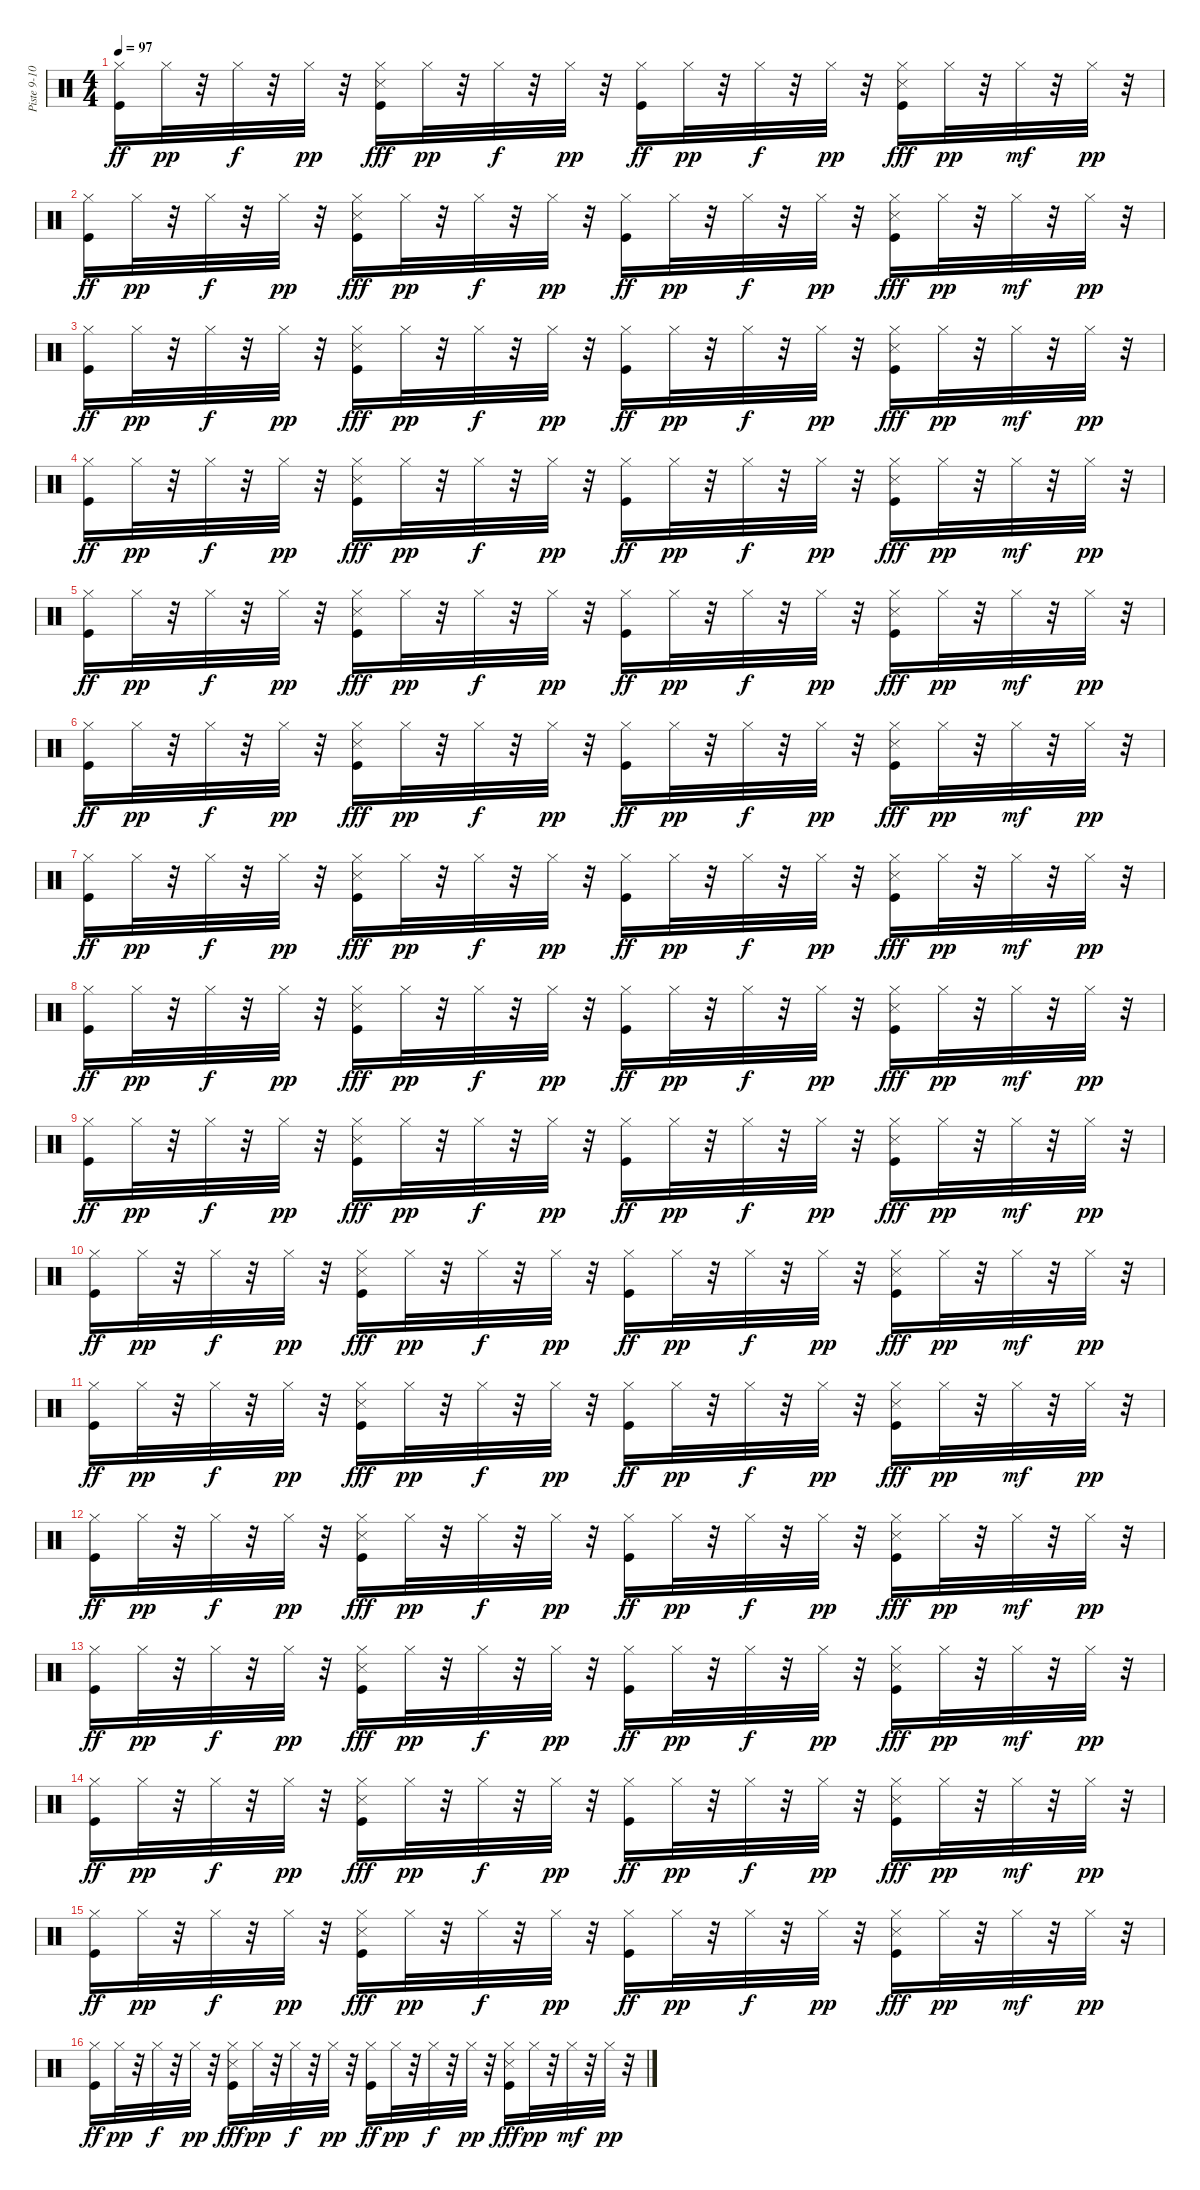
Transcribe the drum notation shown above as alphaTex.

\track ("Piste 9-10-11-12-13-14" "Piste 9-10") {instrument percussion}
\staff {score}
\articulation defaults
\ts (4 4)
\tempo 97
\clef neutral
\ks c
("Hi-Hat (closed)" "Kick (hit)").16{dy ff} "Hi-Hat (closed)".32{dy pp} r.32 "Hi-Hat (closed)".32{dy f} r.32 "Hi-Hat (closed)".32{dy pp} r.32 ("Hi-Hat (closed)" "Kick (hit)" "Snare (side stick) 3").16{dy fff} "Hi-Hat (closed)".32{dy pp} r.32 "Hi-Hat (closed)".32{dy f} r.32 "Hi-Hat (closed)".32{dy pp} r.32 ("Hi-Hat (closed)" "Kick (hit)").16{dy ff} "Hi-Hat (closed)".32{dy pp} r.32 "Hi-Hat (closed)".32{dy f} r.32 "Hi-Hat (closed)".32{dy pp} r.32 ("Hi-Hat (closed)" "Kick (hit)" "Snare (side stick) 3").16{dy fff} "Hi-Hat (closed)".32{dy pp} r.32 "Hi-Hat (closed)".32{dy mf} r.32 "Hi-Hat (closed)".32{dy pp} r.32 |
("Hi-Hat (closed)" "Kick (hit)").16{dy ff} "Hi-Hat (closed)".32{dy pp} r.32 "Hi-Hat (closed)".32{dy f} r.32 "Hi-Hat (closed)".32{dy pp} r.32 ("Hi-Hat (closed)" "Kick (hit)" "Snare (side stick) 3").16{dy fff} "Hi-Hat (closed)".32{dy pp} r.32 "Hi-Hat (closed)".32{dy f} r.32 "Hi-Hat (closed)".32{dy pp} r.32 ("Hi-Hat (closed)" "Kick (hit)").16{dy ff} "Hi-Hat (closed)".32{dy pp} r.32 "Hi-Hat (closed)".32{dy f} r.32 "Hi-Hat (closed)".32{dy pp} r.32 ("Hi-Hat (closed)" "Kick (hit)" "Snare (side stick) 3").16{dy fff} "Hi-Hat (closed)".32{dy pp} r.32 "Hi-Hat (closed)".32{dy mf} r.32 "Hi-Hat (closed)".32{dy pp} r.32 |
("Hi-Hat (closed)" "Kick (hit)").16{dy ff} "Hi-Hat (closed)".32{dy pp} r.32 "Hi-Hat (closed)".32{dy f} r.32 "Hi-Hat (closed)".32{dy pp} r.32 ("Hi-Hat (closed)" "Kick (hit)" "Snare (side stick) 3").16{dy fff} "Hi-Hat (closed)".32{dy pp} r.32 "Hi-Hat (closed)".32{dy f} r.32 "Hi-Hat (closed)".32{dy pp} r.32 ("Hi-Hat (closed)" "Kick (hit)").16{dy ff} "Hi-Hat (closed)".32{dy pp} r.32 "Hi-Hat (closed)".32{dy f} r.32 "Hi-Hat (closed)".32{dy pp} r.32 ("Hi-Hat (closed)" "Kick (hit)" "Snare (side stick) 3").16{dy fff} "Hi-Hat (closed)".32{dy pp} r.32 "Hi-Hat (closed)".32{dy mf} r.32 "Hi-Hat (closed)".32{dy pp} r.32 |
("Hi-Hat (closed)" "Kick (hit)").16{dy ff} "Hi-Hat (closed)".32{dy pp} r.32 "Hi-Hat (closed)".32{dy f} r.32 "Hi-Hat (closed)".32{dy pp} r.32 ("Hi-Hat (closed)" "Kick (hit)" "Snare (side stick) 3").16{dy fff} "Hi-Hat (closed)".32{dy pp} r.32 "Hi-Hat (closed)".32{dy f} r.32 "Hi-Hat (closed)".32{dy pp} r.32 ("Hi-Hat (closed)" "Kick (hit)").16{dy ff} "Hi-Hat (closed)".32{dy pp} r.32 "Hi-Hat (closed)".32{dy f} r.32 "Hi-Hat (closed)".32{dy pp} r.32 ("Hi-Hat (closed)" "Kick (hit)" "Snare (side stick) 3").16{dy fff} "Hi-Hat (closed)".32{dy pp} r.32 "Hi-Hat (closed)".32{dy mf} r.32 "Hi-Hat (closed)".32{dy pp} r.32 |
("Hi-Hat (closed)" "Kick (hit)").16{dy ff} "Hi-Hat (closed)".32{dy pp} r.32 "Hi-Hat (closed)".32{dy f} r.32 "Hi-Hat (closed)".32{dy pp} r.32 ("Hi-Hat (closed)" "Kick (hit)" "Snare (side stick) 3").16{dy fff} "Hi-Hat (closed)".32{dy pp} r.32 "Hi-Hat (closed)".32{dy f} r.32 "Hi-Hat (closed)".32{dy pp} r.32 ("Hi-Hat (closed)" "Kick (hit)").16{dy ff} "Hi-Hat (closed)".32{dy pp} r.32 "Hi-Hat (closed)".32{dy f} r.32 "Hi-Hat (closed)".32{dy pp} r.32 ("Hi-Hat (closed)" "Kick (hit)" "Snare (side stick) 3").16{dy fff} "Hi-Hat (closed)".32{dy pp} r.32 "Hi-Hat (closed)".32{dy mf} r.32 "Hi-Hat (closed)".32{dy pp} r.32 |
("Hi-Hat (closed)" "Kick (hit)").16{dy ff} "Hi-Hat (closed)".32{dy pp} r.32 "Hi-Hat (closed)".32{dy f} r.32 "Hi-Hat (closed)".32{dy pp} r.32 ("Hi-Hat (closed)" "Kick (hit)" "Snare (side stick) 3").16{dy fff} "Hi-Hat (closed)".32{dy pp} r.32 "Hi-Hat (closed)".32{dy f} r.32 "Hi-Hat (closed)".32{dy pp} r.32 ("Hi-Hat (closed)" "Kick (hit)").16{dy ff} "Hi-Hat (closed)".32{dy pp} r.32 "Hi-Hat (closed)".32{dy f} r.32 "Hi-Hat (closed)".32{dy pp} r.32 ("Hi-Hat (closed)" "Kick (hit)" "Snare (side stick) 3").16{dy fff} "Hi-Hat (closed)".32{dy pp} r.32 "Hi-Hat (closed)".32{dy mf} r.32 "Hi-Hat (closed)".32{dy pp} r.32 |
("Hi-Hat (closed)" "Kick (hit)").16{dy ff} "Hi-Hat (closed)".32{dy pp} r.32 "Hi-Hat (closed)".32{dy f} r.32 "Hi-Hat (closed)".32{dy pp} r.32 ("Hi-Hat (closed)" "Kick (hit)" "Snare (side stick) 3").16{dy fff} "Hi-Hat (closed)".32{dy pp} r.32 "Hi-Hat (closed)".32{dy f} r.32 "Hi-Hat (closed)".32{dy pp} r.32 ("Hi-Hat (closed)" "Kick (hit)").16{dy ff} "Hi-Hat (closed)".32{dy pp} r.32 "Hi-Hat (closed)".32{dy f} r.32 "Hi-Hat (closed)".32{dy pp} r.32 ("Hi-Hat (closed)" "Kick (hit)" "Snare (side stick) 3").16{dy fff} "Hi-Hat (closed)".32{dy pp} r.32 "Hi-Hat (closed)".32{dy mf} r.32 "Hi-Hat (closed)".32{dy pp} r.32 |
("Hi-Hat (closed)" "Kick (hit)").16{dy ff} "Hi-Hat (closed)".32{dy pp} r.32 "Hi-Hat (closed)".32{dy f} r.32 "Hi-Hat (closed)".32{dy pp} r.32 ("Hi-Hat (closed)" "Kick (hit)" "Snare (side stick) 3").16{dy fff} "Hi-Hat (closed)".32{dy pp} r.32 "Hi-Hat (closed)".32{dy f} r.32 "Hi-Hat (closed)".32{dy pp} r.32 ("Hi-Hat (closed)" "Kick (hit)").16{dy ff} "Hi-Hat (closed)".32{dy pp} r.32 "Hi-Hat (closed)".32{dy f} r.32 "Hi-Hat (closed)".32{dy pp} r.32 ("Hi-Hat (closed)" "Kick (hit)" "Snare (side stick) 3").16{dy fff} "Hi-Hat (closed)".32{dy pp} r.32 "Hi-Hat (closed)".32{dy mf} r.32 "Hi-Hat (closed)".32{dy pp} r.32 |
("Hi-Hat (closed)" "Kick (hit)").16{dy ff} "Hi-Hat (closed)".32{dy pp} r.32 "Hi-Hat (closed)".32{dy f} r.32 "Hi-Hat (closed)".32{dy pp} r.32 ("Hi-Hat (closed)" "Kick (hit)" "Snare (side stick) 3").16{dy fff} "Hi-Hat (closed)".32{dy pp} r.32 "Hi-Hat (closed)".32{dy f} r.32 "Hi-Hat (closed)".32{dy pp} r.32 ("Hi-Hat (closed)" "Kick (hit)").16{dy ff} "Hi-Hat (closed)".32{dy pp} r.32 "Hi-Hat (closed)".32{dy f} r.32 "Hi-Hat (closed)".32{dy pp} r.32 ("Hi-Hat (closed)" "Kick (hit)" "Snare (side stick) 3").16{dy fff} "Hi-Hat (closed)".32{dy pp} r.32 "Hi-Hat (closed)".32{dy mf} r.32 "Hi-Hat (closed)".32{dy pp} r.32 |
("Hi-Hat (closed)" "Kick (hit)").16{dy ff} "Hi-Hat (closed)".32{dy pp} r.32 "Hi-Hat (closed)".32{dy f} r.32 "Hi-Hat (closed)".32{dy pp} r.32 ("Hi-Hat (closed)" "Kick (hit)" "Snare (side stick) 3").16{dy fff} "Hi-Hat (closed)".32{dy pp} r.32 "Hi-Hat (closed)".32{dy f} r.32 "Hi-Hat (closed)".32{dy pp} r.32 ("Hi-Hat (closed)" "Kick (hit)").16{dy ff} "Hi-Hat (closed)".32{dy pp} r.32 "Hi-Hat (closed)".32{dy f} r.32 "Hi-Hat (closed)".32{dy pp} r.32 ("Hi-Hat (closed)" "Kick (hit)" "Snare (side stick) 3").16{dy fff} "Hi-Hat (closed)".32{dy pp} r.32 "Hi-Hat (closed)".32{dy mf} r.32 "Hi-Hat (closed)".32{dy pp} r.32 |
("Hi-Hat (closed)" "Kick (hit)").16{dy ff} "Hi-Hat (closed)".32{dy pp} r.32 "Hi-Hat (closed)".32{dy f} r.32 "Hi-Hat (closed)".32{dy pp} r.32 ("Hi-Hat (closed)" "Kick (hit)" "Snare (side stick) 3").16{dy fff} "Hi-Hat (closed)".32{dy pp} r.32 "Hi-Hat (closed)".32{dy f} r.32 "Hi-Hat (closed)".32{dy pp} r.32 ("Hi-Hat (closed)" "Kick (hit)").16{dy ff} "Hi-Hat (closed)".32{dy pp} r.32 "Hi-Hat (closed)".32{dy f} r.32 "Hi-Hat (closed)".32{dy pp} r.32 ("Hi-Hat (closed)" "Kick (hit)" "Snare (side stick) 3").16{dy fff} "Hi-Hat (closed)".32{dy pp} r.32 "Hi-Hat (closed)".32{dy mf} r.32 "Hi-Hat (closed)".32{dy pp} r.32 |
("Hi-Hat (closed)" "Kick (hit)").16{dy ff} "Hi-Hat (closed)".32{dy pp} r.32 "Hi-Hat (closed)".32{dy f} r.32 "Hi-Hat (closed)".32{dy pp} r.32 ("Hi-Hat (closed)" "Kick (hit)" "Snare (side stick) 3").16{dy fff} "Hi-Hat (closed)".32{dy pp} r.32 "Hi-Hat (closed)".32{dy f} r.32 "Hi-Hat (closed)".32{dy pp} r.32 ("Hi-Hat (closed)" "Kick (hit)").16{dy ff} "Hi-Hat (closed)".32{dy pp} r.32 "Hi-Hat (closed)".32{dy f} r.32 "Hi-Hat (closed)".32{dy pp} r.32 ("Hi-Hat (closed)" "Kick (hit)" "Snare (side stick) 3").16{dy fff} "Hi-Hat (closed)".32{dy pp} r.32 "Hi-Hat (closed)".32{dy mf} r.32 "Hi-Hat (closed)".32{dy pp} r.32 |
("Hi-Hat (closed)" "Kick (hit)").16{dy ff} "Hi-Hat (closed)".32{dy pp} r.32 "Hi-Hat (closed)".32{dy f} r.32 "Hi-Hat (closed)".32{dy pp} r.32 ("Hi-Hat (closed)" "Kick (hit)" "Snare (side stick) 3").16{dy fff} "Hi-Hat (closed)".32{dy pp} r.32 "Hi-Hat (closed)".32{dy f} r.32 "Hi-Hat (closed)".32{dy pp} r.32 ("Hi-Hat (closed)" "Kick (hit)").16{dy ff} "Hi-Hat (closed)".32{dy pp} r.32 "Hi-Hat (closed)".32{dy f} r.32 "Hi-Hat (closed)".32{dy pp} r.32 ("Hi-Hat (closed)" "Kick (hit)" "Snare (side stick) 3").16{dy fff} "Hi-Hat (closed)".32{dy pp} r.32 "Hi-Hat (closed)".32{dy mf} r.32 "Hi-Hat (closed)".32{dy pp} r.32 |
("Hi-Hat (closed)" "Kick (hit)").16{dy ff} "Hi-Hat (closed)".32{dy pp} r.32 "Hi-Hat (closed)".32{dy f} r.32 "Hi-Hat (closed)".32{dy pp} r.32 ("Hi-Hat (closed)" "Kick (hit)" "Snare (side stick) 3").16{dy fff} "Hi-Hat (closed)".32{dy pp} r.32 "Hi-Hat (closed)".32{dy f} r.32 "Hi-Hat (closed)".32{dy pp} r.32 ("Hi-Hat (closed)" "Kick (hit)").16{dy ff} "Hi-Hat (closed)".32{dy pp} r.32 "Hi-Hat (closed)".32{dy f} r.32 "Hi-Hat (closed)".32{dy pp} r.32 ("Hi-Hat (closed)" "Kick (hit)" "Snare (side stick) 3").16{dy fff} "Hi-Hat (closed)".32{dy pp} r.32 "Hi-Hat (closed)".32{dy mf} r.32 "Hi-Hat (closed)".32{dy pp} r.32 |
("Hi-Hat (closed)" "Kick (hit)").16{dy ff} "Hi-Hat (closed)".32{dy pp} r.32 "Hi-Hat (closed)".32{dy f} r.32 "Hi-Hat (closed)".32{dy pp} r.32 ("Hi-Hat (closed)" "Kick (hit)" "Snare (side stick) 3").16{dy fff} "Hi-Hat (closed)".32{dy pp} r.32 "Hi-Hat (closed)".32{dy f} r.32 "Hi-Hat (closed)".32{dy pp} r.32 ("Hi-Hat (closed)" "Kick (hit)").16{dy ff} "Hi-Hat (closed)".32{dy pp} r.32 "Hi-Hat (closed)".32{dy f} r.32 "Hi-Hat (closed)".32{dy pp} r.32 ("Hi-Hat (closed)" "Kick (hit)" "Snare (side stick) 3").16{dy fff} "Hi-Hat (closed)".32{dy pp} r.32 "Hi-Hat (closed)".32{dy mf} r.32 "Hi-Hat (closed)".32{dy pp} r.32 |
("Hi-Hat (closed)" "Kick (hit)").16{dy ff} "Hi-Hat (closed)".32{dy pp} r.32 "Hi-Hat (closed)".32{dy f} r.32 "Hi-Hat (closed)".32{dy pp} r.32 ("Hi-Hat (closed)" "Kick (hit)" "Snare (side stick) 3").16{dy fff} "Hi-Hat (closed)".32{dy pp} r.32 "Hi-Hat (closed)".32{dy f} r.32 "Hi-Hat (closed)".32{dy pp} r.32 ("Hi-Hat (closed)" "Kick (hit)").16{dy ff} "Hi-Hat (closed)".32{dy pp} r.32 "Hi-Hat (closed)".32{dy f} r.32 "Hi-Hat (closed)".32{dy pp} r.32 ("Hi-Hat (closed)" "Kick (hit)" "Snare (side stick) 3").16{dy fff} "Hi-Hat (closed)".32{dy pp} r.32 "Hi-Hat (closed)".32{dy mf} r.32 "Hi-Hat (closed)".32{dy pp} r.32
